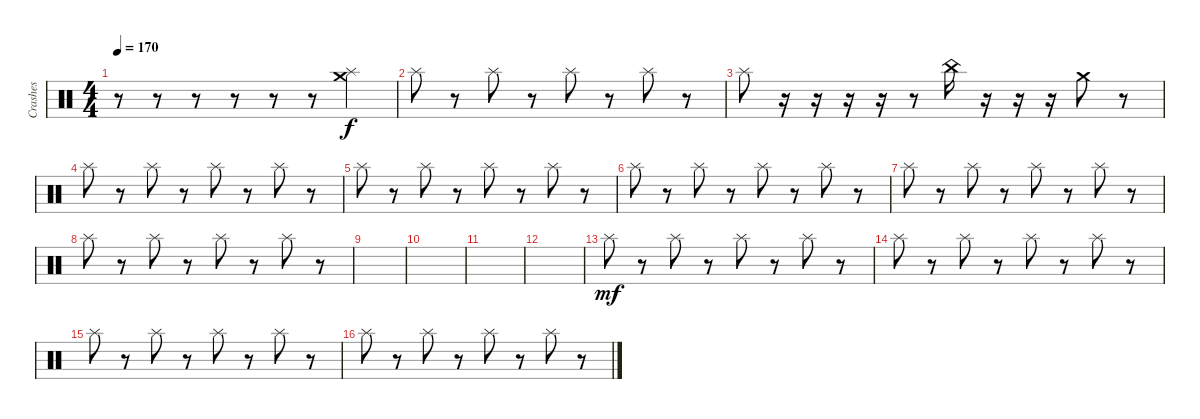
\track ("Crashes" "Crashes") {instrument percussion}
\staff {score}
\articulation defaults
\ts (4 4)
\tempo 170
\clef neutral
\ks c
r.8{dy f} r.8 r.8 r.8 r.8 r.8 ("Crash medium (hit)" "Splash (hit)").4 |
"Splash (hit)".8 r.8 "Splash (hit)".8 r.8 "Splash (hit)".8 r.8 "Splash (hit)".8 r.8 |
"Splash (hit)".8 r.16 r.16 r.16 r.16 r.8 "China (hit)".16 r.16 r.16 r.16 "Crash medium (hit)".8 r.8 |
"Splash (hit)".8 r.8 "Splash (hit)".8 r.8 "Splash (hit)".8 r.8 "Splash (hit)".8 r.8 |
"Splash (hit)".8 r.8 "Splash (hit)".8 r.8 "Splash (hit)".8 r.8 "Splash (hit)".8 r.8 |
"Splash (hit)".8 r.8 "Splash (hit)".8 r.8 "Splash (hit)".8 r.8 "Splash (hit)".8 r.8 |
"Splash (hit)".8 r.8 "Splash (hit)".8 r.8 "Splash (hit)".8 r.8 "Splash (hit)".8 r.8 |
"Splash (hit)".8 r.8 "Splash (hit)".8 r.8 "Splash (hit)".8 r.8 "Splash (hit)".8 r.8 |
|
|
|
|
"Splash (hit)".8{dy mf} r.8 "Splash (hit)".8 r.8 "Splash (hit)".8 r.8 "Splash (hit)".8 r.8 |
"Splash (hit)".8 r.8 "Splash (hit)".8 r.8 "Splash (hit)".8 r.8 "Splash (hit)".8 r.8 |
"Splash (hit)".8 r.8 "Splash (hit)".8 r.8 "Splash (hit)".8 r.8 "Splash (hit)".8 r.8 |
"Splash (hit)".8 r.8 "Splash (hit)".8 r.8 "Splash (hit)".8 r.8 "Splash (hit)".8 r.8
